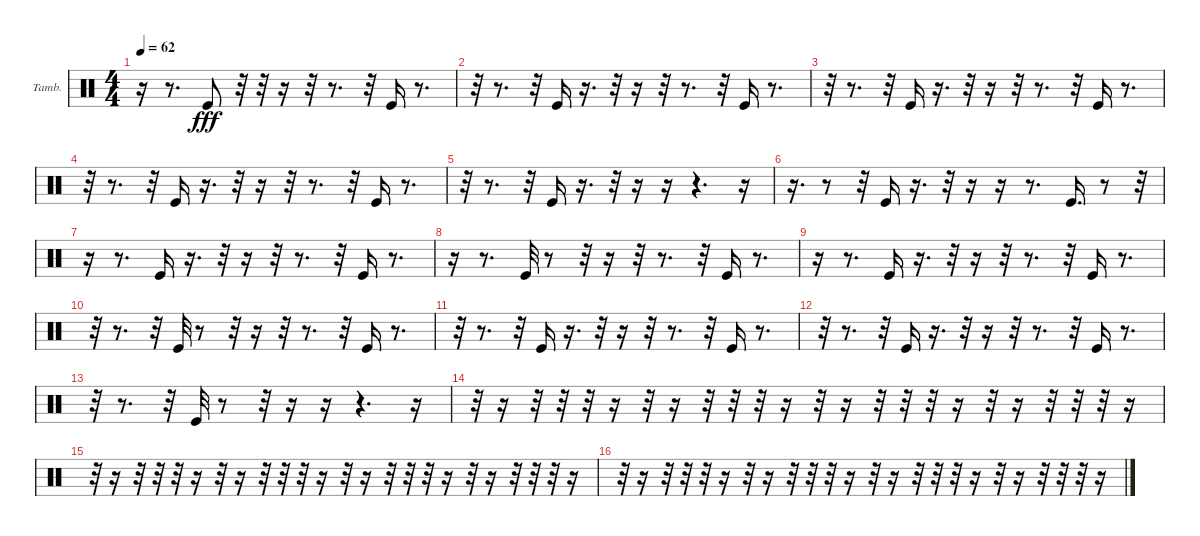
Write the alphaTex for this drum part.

\bracketExtendMode groupsimilarinstruments
\firstSystemTrackNameOrientation horizontal
\otherSystemsTrackNameOrientation horizontal
\track ("Tambourine" "Tamb.") {instrument percussion}
\staff {score}
\articulation defaults
\ts (4 4)
\tempo 62
\clef neutral
\ks c
r.16{dy fff} r.8{d} "Kick (hit)".8 r.32 r.32 r.16 r.32 r.8{d} r.32 "Kick (hit)".16 r.8{d} |
r.32 r.8{d} r.32 "Kick (hit)".16 r.16{d} r.32 r.16 r.32 r.8{d} r.32 "Kick (hit)".16 r.8{d} |
r.32 r.8{d} r.32 "Kick (hit)".16 r.16{d} r.32 r.16 r.32 r.8{d} r.32 "Kick (hit)".16 r.8{d} |
r.32 r.8{d} r.32 "Kick (hit)".16 r.16{d} r.32 r.16 r.32 r.8{d} r.32 "Kick (hit)".16 r.8{d} |
r.32 r.8{d} r.32 "Kick (hit)".16 r.16{d} r.32 r.16 r.16 r.4{d} r.16 |
r.16{d} r.8 r.32 "Kick (hit)".16 r.16{d} r.32 r.16 r.16 r.8{d} "Kick (hit)".16{d} r.8 r.32 |
r.16 r.8{d} "Kick (hit)".16 r.16{d} r.32 r.16 r.32 r.8{d} r.32 "Kick (hit)".16 r.8{d} |
r.16 r.8{d} "Kick (hit)".32 r.8 r.32 r.16 r.32 r.8{d} r.32 "Kick (hit)".16 r.8{d} |
r.16 r.8{d} "Kick (hit)".16 r.16{d} r.32 r.16 r.32 r.8{d} r.32 "Kick (hit)".16 r.8{d} |
r.32 r.8{d} r.32 "Kick (hit)".32 r.8 r.32 r.16 r.32 r.8{d} r.32 "Kick (hit)".16 r.8{d} |
r.32 r.8{d} r.32 "Kick (hit)".16 r.16{d} r.32 r.16 r.32 r.8{d} r.32 "Kick (hit)".16 r.8{d} |
r.32 r.8{d} r.32 "Kick (hit)".16 r.16{d} r.32 r.16 r.32 r.8{d} r.32 "Kick (hit)".16 r.8{d} |
r.32 r.8{d} r.32 "Kick (hit)".32 r.8 r.32 r.16 r.16 r.4{d} r.16 |
r.32 r.16 r.32 r.32 r.32 r.16 r.32 r.16 r.32 r.32 r.32 r.16 r.32 r.16 r.32 r.32 r.32 r.16 r.32 r.16 r.32 r.32 r.32 r.16 |
r.32 r.16 r.32 r.32 r.32 r.16 r.32 r.16 r.32 r.32 r.32 r.16 r.32 r.16 r.32 r.32 r.32 r.16 r.32 r.16 r.32 r.32 r.32 r.16 |
r.32 r.16 r.32 r.32 r.32 r.16 r.32 r.16 r.32 r.32 r.32 r.16 r.32 r.16 r.32 r.32 r.32 r.16 r.32 r.16 r.32 r.32 r.32 r.16
